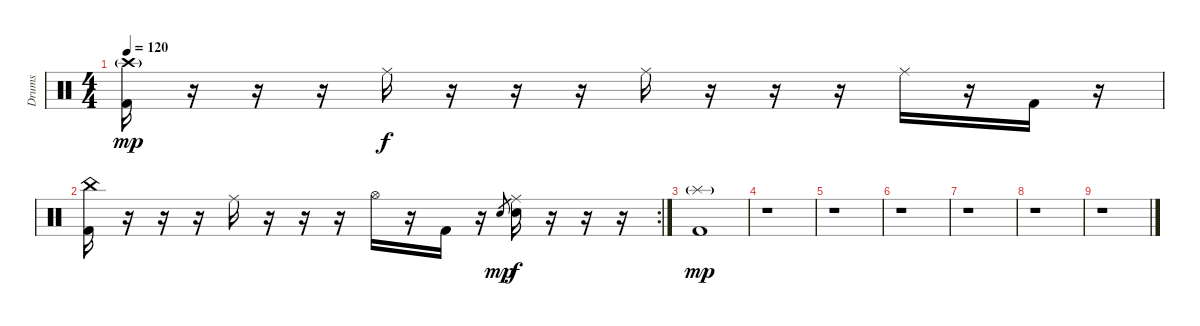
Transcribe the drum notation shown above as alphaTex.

\track ("Drums" "Drums") {instrument percussion}
\staff {score}
\articulation defaults
\ts (4 4)
\tempo 120
\clef neutral
\ks c
("Crash high (hit)"{g} "Kick (hit) 2").16{dy mp} r.16 r.16 r.16 "Ride (middle)".16{dy f} r.16 r.16 r.16 "Ride (middle)".16 r.16 r.16 r.16 "Ride (middle)".16 r.16 "Kick (hit) 2".16 r.16 |
\rc 2
("China (hit)" "Kick (hit) 2").16 r.16 r.16 r.16 "Ride (middle)".16 r.16 r.16 r.16 "Hi-Hat (open)".16 r.16 "Kick (hit) 2".16 r.16 "Electric Snare (hit)".8{gr dy mp} ("Ride (middle)" "Electric Snare (hit)").16{dy f} r.16 r.16 r.16 |
("Splash (hit)"{g} "Kick (hit) 2").1{dy mp} |
r.1 |
r.1 |
r.1 |
r.1 |
r.1 |
r.1
